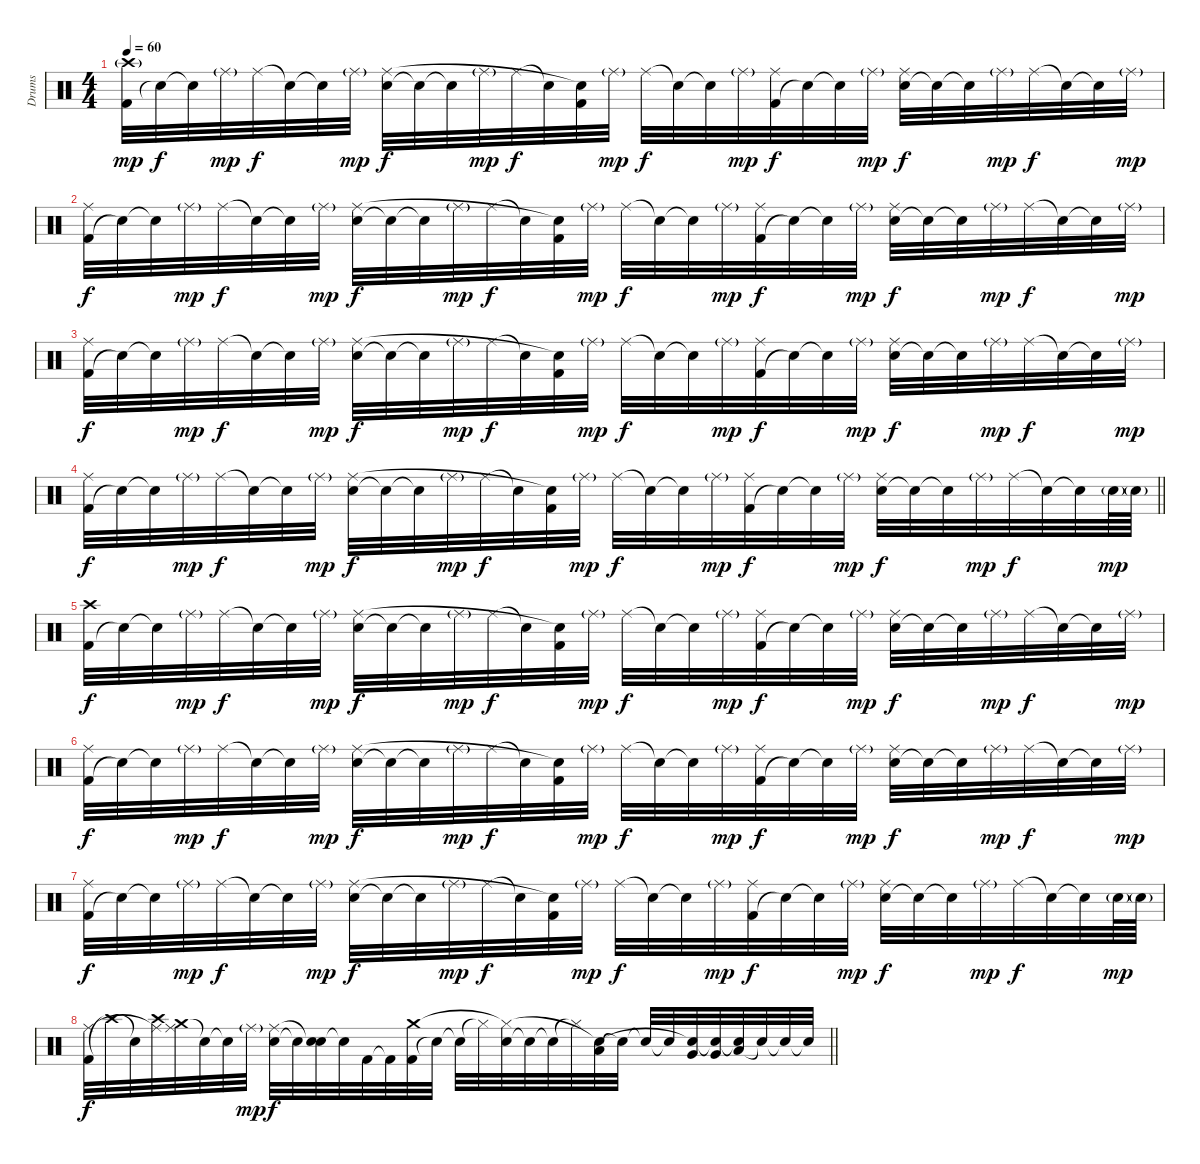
\track ("Drums" "Drums") {instrument percussion}
\staff {score}
\articulation defaults
\ts (4 4)
\tempo 60
\clef neutral
\ks c
("Kick (hit) 2" "Crash high (hit)"{g}).32{dy mp} "Snare (hit)"{t}.32{dy f} "Snare (hit)"{t}.32 "Ride (middle)"{g}.32{dy mp} "Ride (middle)".32{dy f} "Snare (hit)"{t}.32 "Snare (hit)"{t}.32 "Ride (middle)"{g}.32{dy mp} ("Electric Snare (hit)" "Ride (middle)").32{dy f} "Snare (hit)"{t}.32 "Snare (hit)"{t}.32 "Ride (middle)"{g}.32{dy mp} "Ride (middle)".32{dy f} "Snare (hit)"{t}.32 ("Kick (hit) 2" "Snare (hit)"{t}).32 "Ride (middle)"{g}.32{dy mp} "Ride (middle)".32{dy f} "Snare (hit)"{t}.32 "Snare (hit)"{t}.32 "Ride (middle)"{g}.32{dy mp} ("Kick (hit) 2" "Ride (middle)").32{dy f} "Snare (hit)"{t}.32 "Snare (hit)"{t}.32 "Ride (middle)"{g}.32{dy mp} ("Electric Snare (hit)" "Ride (middle)").32{dy f} "Snare (hit)"{t}.32 "Snare (hit)"{t}.32 "Ride (middle)"{g}.32{dy mp} "Ride (middle)".32{dy f} "Snare (hit)"{t}.32 "Snare (hit)"{t}.32 "Ride (middle)"{g}.32{dy mp} |
("Kick (hit) 2" "Ride (middle)").32{dy f} "Snare (hit)"{t}.32 "Snare (hit)"{t}.32 "Ride (middle)"{g}.32{dy mp} "Ride (middle)".32{dy f} "Snare (hit)"{t}.32 "Snare (hit)"{t}.32 "Ride (middle)"{g}.32{dy mp} ("Electric Snare (hit)" "Ride (middle)").32{dy f} "Snare (hit)"{t}.32 "Snare (hit)"{t}.32 "Ride (middle)"{g}.32{dy mp} "Ride (middle)".32{dy f} "Snare (hit)"{t}.32 ("Kick (hit) 2" "Snare (hit)"{t}).32 "Ride (middle)"{g}.32{dy mp} "Ride (middle)".32{dy f} "Snare (hit)"{t}.32 "Snare (hit)"{t}.32 "Ride (middle)"{g}.32{dy mp} ("Kick (hit) 2" "Ride (middle)").32{dy f} "Snare (hit)"{t}.32 "Snare (hit)"{t}.32 "Ride (middle)"{g}.32{dy mp} ("Electric Snare (hit)" "Ride (middle)").32{dy f} "Snare (hit)"{t}.32 "Snare (hit)"{t}.32 "Ride (middle)"{g}.32{dy mp} "Ride (middle)".32{dy f} "Snare (hit)"{t}.32 "Snare (hit)"{t}.32 "Ride (middle)"{g}.32{dy mp} |
("Kick (hit) 2" "Ride (middle)").32{dy f} "Snare (hit)"{t}.32 "Snare (hit)"{t}.32 "Ride (middle)"{g}.32{dy mp} "Ride (middle)".32{dy f} "Snare (hit)"{t}.32 "Snare (hit)"{t}.32 "Ride (middle)"{g}.32{dy mp} ("Electric Snare (hit)" "Ride (middle)").32{dy f} "Snare (hit)"{t}.32 "Snare (hit)"{t}.32 "Ride (middle)"{g}.32{dy mp} "Ride (middle)".32{dy f} "Snare (hit)"{t}.32 ("Kick (hit) 2" "Snare (hit)"{t}).32 "Ride (middle)"{g}.32{dy mp} "Ride (middle)".32{dy f} "Snare (hit)"{t}.32 "Snare (hit)"{t}.32 "Ride (middle)"{g}.32{dy mp} ("Kick (hit) 2" "Ride (middle)").32{dy f} "Snare (hit)"{t}.32 "Snare (hit)"{t}.32 "Ride (middle)"{g}.32{dy mp} ("Electric Snare (hit)" "Ride (middle)").32{dy f} "Snare (hit)"{t}.32 "Snare (hit)"{t}.32 "Ride (middle)"{g}.32{dy mp} "Ride (middle)".32{dy f} "Snare (hit)"{t}.32 "Snare (hit)"{t}.32 "Ride (middle)"{g}.32{dy mp} |
\barLineRight lightlight
("Kick (hit) 2" "Ride (middle)").32{dy f} "Snare (hit)"{t}.32 "Snare (hit)"{t}.32 "Ride (middle)"{g}.32{dy mp} "Ride (middle)".32{dy f} "Snare (hit)"{t}.32 "Snare (hit)"{t}.32 "Ride (middle)"{g}.32{dy mp} ("Electric Snare (hit)" "Ride (middle)").32{dy f} "Snare (hit)"{t}.32 "Snare (hit)"{t}.32 "Ride (middle)"{g}.32{dy mp} "Ride (middle)".32{dy f} "Snare (hit)"{t}.32 ("Kick (hit) 2" "Snare (hit)"{t}).32 "Ride (middle)"{g}.32{dy mp} "Ride (middle)".32{dy f} "Snare (hit)"{t}.32 "Snare (hit)"{t}.32 "Ride (middle)"{g}.32{dy mp} ("Kick (hit) 2" "Ride (middle)").32{dy f} "Snare (hit)"{t}.32 "Snare (hit)"{t}.32 "Ride (middle)"{g}.32{dy mp} ("Electric Snare (hit)" "Ride (middle)").32{dy f} "Snare (hit)"{t}.32 "Snare (hit)"{t}.32 "Ride (middle)"{g}.32{dy mp} "Ride (middle)".32{dy f} "Snare (hit)"{t}.32 "Snare (hit)"{t}.32 "Electric Snare (hit)"{g}.64{dy mp} "Electric Snare (hit)"{g}.64 |
("Kick (hit) 2" "Crash high (hit)").32{dy f} "Snare (hit)"{t}.32 "Snare (hit)"{t}.32 "Ride (middle)"{g}.32{dy mp} "Ride (middle)".32{dy f} "Snare (hit)"{t}.32 "Snare (hit)"{t}.32 "Ride (middle)"{g}.32{dy mp} ("Electric Snare (hit)" "Ride (middle)").32{dy f} "Snare (hit)"{t}.32 "Snare (hit)"{t}.32 "Ride (middle)"{g}.32{dy mp} "Ride (middle)".32{dy f} "Snare (hit)"{t}.32 ("Kick (hit) 2" "Snare (hit)"{t}).32 "Ride (middle)"{g}.32{dy mp} "Ride (middle)".32{dy f} "Snare (hit)"{t}.32 "Snare (hit)"{t}.32 "Ride (middle)"{g}.32{dy mp} ("Kick (hit) 2" "Ride (middle)").32{dy f} "Snare (hit)"{t}.32 "Snare (hit)"{t}.32 "Ride (middle)"{g}.32{dy mp} ("Electric Snare (hit)" "Ride (middle)").32{dy f} "Snare (hit)"{t}.32 "Snare (hit)"{t}.32 "Ride (middle)"{g}.32{dy mp} "Ride (middle)".32{dy f} "Snare (hit)"{t}.32 "Snare (hit)"{t}.32 "Ride (middle)"{g}.32{dy mp} |
("Kick (hit) 2" "Ride (middle)").32{dy f} "Snare (hit)"{t}.32 "Snare (hit)"{t}.32 "Ride (middle)"{g}.32{dy mp} "Ride (middle)".32{dy f} "Snare (hit)"{t}.32 "Snare (hit)"{t}.32 "Ride (middle)"{g}.32{dy mp} ("Electric Snare (hit)" "Ride (middle)").32{dy f} "Snare (hit)"{t}.32 "Snare (hit)"{t}.32 "Ride (middle)"{g}.32{dy mp} "Ride (middle)".32{dy f} "Snare (hit)"{t}.32 ("Kick (hit) 2" "Snare (hit)"{t}).32 "Ride (middle)"{g}.32{dy mp} "Ride (middle)".32{dy f} "Snare (hit)"{t}.32 "Snare (hit)"{t}.32 "Ride (middle)"{g}.32{dy mp} ("Kick (hit) 2" "Ride (middle)").32{dy f} "Snare (hit)"{t}.32 "Snare (hit)"{t}.32 "Ride (middle)"{g}.32{dy mp} ("Electric Snare (hit)" "Ride (middle)").32{dy f} "Snare (hit)"{t}.32 "Snare (hit)"{t}.32 "Ride (middle)"{g}.32{dy mp} "Ride (middle)".32{dy f} "Snare (hit)"{t}.32 "Snare (hit)"{t}.32 "Ride (middle)"{g}.32{dy mp} |
("Kick (hit) 2" "Ride (middle)").32{dy f} "Snare (hit)"{t}.32 "Snare (hit)"{t}.32 "Ride (middle)"{g}.32{dy mp} "Ride (middle)".32{dy f} "Snare (hit)"{t}.32 "Snare (hit)"{t}.32 "Ride (middle)"{g}.32{dy mp} ("Electric Snare (hit)" "Ride (middle)").32{dy f} "Snare (hit)"{t}.32 "Snare (hit)"{t}.32 "Ride (middle)"{g}.32{dy mp} "Ride (middle)".32{dy f} "Snare (hit)"{t}.32 ("Kick (hit) 2" "Snare (hit)"{t}).32 "Ride (middle)"{g}.32{dy mp} "Ride (middle)".32{dy f} "Snare (hit)"{t}.32 "Snare (hit)"{t}.32 "Ride (middle)"{g}.32{dy mp} ("Kick (hit) 2" "Ride (middle)").32{dy f} "Snare (hit)"{t}.32 "Snare (hit)"{t}.32 "Ride (middle)"{g}.32{dy mp} ("Electric Snare (hit)" "Ride (middle)").32{dy f} "Snare (hit)"{t}.32 "Snare (hit)"{t}.32 "Ride (middle)"{g}.32{dy mp} "Ride (middle)".32{dy f} "Snare (hit)"{t}.32 "Snare (hit)"{t}.32 "Electric Snare (hit)"{g}.64{dy mp} "Electric Snare (hit)"{g}.64 |
\barLineRight lightlight
("Kick (hit) 2" "Ride (middle)").32{dy f} "Crash high (hit)"{t}.32 "Snare (hit)"{t}.32 ("Crash high (hit)" "Ride (middle)"{t}).32 ("Crash medium (hit)" "Ride (middle)"{t}).32 "Snare (hit)"{t}.32 "Snare (hit)"{t}.32 "Ride (middle)"{g}.32{dy mp} ("Electric Snare (hit)" "Ride (middle)").32{dy f} "Snare (hit)"{t}.32 ("Electric Snare (hit)" "Snare (hit)"{t}).32 "Snare (hit)"{t}.32 "Kick (hit) 2".32 "Kick (hit) 2"{t}.32 ("Kick (hit) 2" "Crash medium (hit)").32 "Snare (hit)"{t}.32 "Snare (hit)"{t}.32 "Hi-Hat (closed)"{t}.32 ("Electric Snare (hit)" "Hi-Hat (closed)"{t}).32 "Snare (hit)"{t}.32 "Snare (hit)"{t}.32 "Hi-Hat (closed)"{t}.32 ("Low Tom (hit)" "Snare (hit)"{t}).32 "Snare (hit)"{t}.32 "Snare (hit)"{t}.32 "Snare (hit)"{t}.32 ("Very Low Tom (hit)" "Snare (hit)"{t}).32 ("Very Low Tom (hit)" "Snare (hit)"{t}).32 ("Low Floor Tom (hit)" "Snare (hit)"{t}).32 "Snare (hit)"{t}.32 "Snare (hit)"{t}.32 "Snare (hit)"{t}.32
